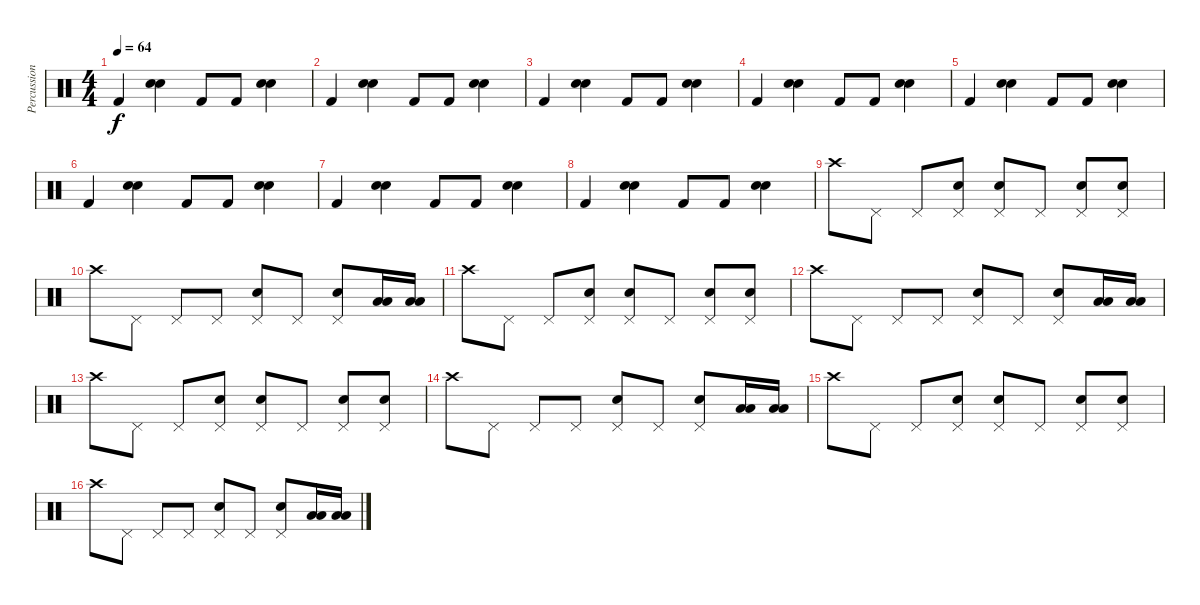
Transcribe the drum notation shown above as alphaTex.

\track ("Percussion" "Percussion") {instrument percussion}
\staff {score}
\articulation defaults
\ts (4 4)
\tempo 64
\clef neutral
\ks c "Kick (hit) 2".4{dy f}
("Snare (hit) 2" "Electric Snare (hit)").4 "Kick (hit) 2".8 "Kick (hit) 2".8 ("Snare (hit) 2" "Electric Snare (hit)").4 |
"Kick (hit) 2".4 ("Snare (hit) 2" "Electric Snare (hit)").4 "Kick (hit) 2".8 "Kick (hit) 2".8 ("Snare (hit) 2" "Electric Snare (hit)").4 |
"Kick (hit) 2".4 ("Snare (hit) 2" "Electric Snare (hit)").4 "Kick (hit) 2".8 "Kick (hit) 2".8 ("Snare (hit) 2" "Electric Snare (hit)").4 |
"Kick (hit) 2".4 ("Snare (hit) 2" "Electric Snare (hit)").4 "Kick (hit) 2".8 "Kick (hit) 2".8 ("Snare (hit) 2" "Electric Snare (hit)").4 |
"Kick (hit) 2".4 ("Snare (hit) 2" "Electric Snare (hit)").4 "Kick (hit) 2".8 "Kick (hit) 2".8 ("Snare (hit) 2" "Electric Snare (hit)").4 |
"Kick (hit) 2".4 ("Snare (hit) 2" "Electric Snare (hit)").4 "Kick (hit) 2".8 "Kick (hit) 2".8 ("Snare (hit) 2" "Electric Snare (hit)").4 |
"Kick (hit) 2".4 ("Snare (hit) 2" "Electric Snare (hit)").4 "Kick (hit) 2".8 "Kick (hit) 2".8 ("Snare (hit) 2" "Electric Snare (hit)").4 |
"Kick (hit) 2".4 ("Snare (hit) 2" "Electric Snare (hit)").4 "Kick (hit) 2".8 "Kick (hit) 2".8 ("Snare (hit) 2" "Electric Snare (hit)").4 |
"Crash high (hit)".8 "Pedal Hi-Hat (hit)".8 "Pedal Hi-Hat (hit)".8 ("Pedal Hi-Hat (hit)" "Electric Snare (hit)").8 ("Pedal Hi-Hat (hit)" "Electric Snare (hit)").8 "Pedal Hi-Hat (hit)".8 ("Pedal Hi-Hat (hit)" "Electric Snare (hit)").8 ("Pedal Hi-Hat (hit)" "Electric Snare (hit)").8 |
"Crash high (hit)".8 "Pedal Hi-Hat (hit)".8 "Pedal Hi-Hat (hit)".8 "Pedal Hi-Hat (hit)".8 ("Pedal Hi-Hat (hit)" "Electric Snare (hit)").8 "Pedal Hi-Hat (hit)".8 ("Pedal Hi-Hat (hit)" "Electric Snare (hit)").8 ("Low Tom (hit)" "Low Tom (hit)").16 ("Low Tom (hit)" "Low Tom (hit)").16 |
"Crash high (hit)".8 "Pedal Hi-Hat (hit)".8 "Pedal Hi-Hat (hit)".8 ("Pedal Hi-Hat (hit)" "Electric Snare (hit)").8 ("Pedal Hi-Hat (hit)" "Electric Snare (hit)").8 "Pedal Hi-Hat (hit)".8 ("Pedal Hi-Hat (hit)" "Electric Snare (hit)").8 ("Pedal Hi-Hat (hit)" "Electric Snare (hit)").8 |
"Crash high (hit)".8 "Pedal Hi-Hat (hit)".8 "Pedal Hi-Hat (hit)".8 "Pedal Hi-Hat (hit)".8 ("Pedal Hi-Hat (hit)" "Electric Snare (hit)").8 "Pedal Hi-Hat (hit)".8 ("Pedal Hi-Hat (hit)" "Electric Snare (hit)").8 ("Low Tom (hit)" "Low Tom (hit)").16 ("Low Tom (hit)" "Low Tom (hit)").16 |
"Crash high (hit)".8 "Pedal Hi-Hat (hit)".8 "Pedal Hi-Hat (hit)".8 ("Pedal Hi-Hat (hit)" "Electric Snare (hit)").8 ("Pedal Hi-Hat (hit)" "Electric Snare (hit)").8 "Pedal Hi-Hat (hit)".8 ("Pedal Hi-Hat (hit)" "Electric Snare (hit)").8 ("Pedal Hi-Hat (hit)" "Electric Snare (hit)").8 |
"Crash high (hit)".8 "Pedal Hi-Hat (hit)".8 "Pedal Hi-Hat (hit)".8 "Pedal Hi-Hat (hit)".8 ("Pedal Hi-Hat (hit)" "Electric Snare (hit)").8 "Pedal Hi-Hat (hit)".8 ("Pedal Hi-Hat (hit)" "Electric Snare (hit)").8 ("Low Tom (hit)" "Low Tom (hit)").16 ("Low Tom (hit)" "Low Tom (hit)").16 |
"Crash high (hit)".8 "Pedal Hi-Hat (hit)".8 "Pedal Hi-Hat (hit)".8 ("Pedal Hi-Hat (hit)" "Electric Snare (hit)").8 ("Pedal Hi-Hat (hit)" "Electric Snare (hit)").8 "Pedal Hi-Hat (hit)".8 ("Pedal Hi-Hat (hit)" "Electric Snare (hit)").8 ("Pedal Hi-Hat (hit)" "Electric Snare (hit)").8 |
"Crash high (hit)".8 "Pedal Hi-Hat (hit)".8 "Pedal Hi-Hat (hit)".8 "Pedal Hi-Hat (hit)".8 ("Pedal Hi-Hat (hit)" "Electric Snare (hit)").8 "Pedal Hi-Hat (hit)".8 ("Pedal Hi-Hat (hit)" "Electric Snare (hit)").8 ("Low Tom (hit)" "Low Tom (hit)").16 ("Low Tom (hit)" "Low Tom (hit)").16
